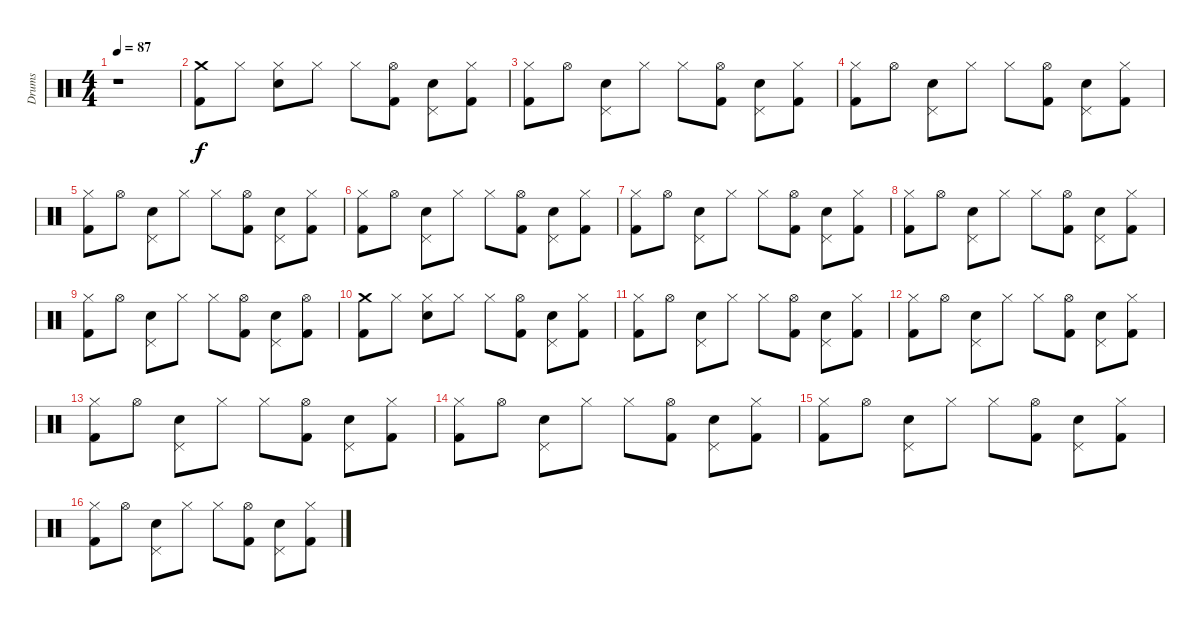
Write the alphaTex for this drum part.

\track ("Drums" "Drums") {instrument percussion}
\staff {score}
\articulation defaults
\ts (4 4)
\tempo 87
\clef neutral
\ks c
r.1{dy f} |
("Crash medium (hit)" "Kick (hit) 2").8 "Hi-Hat (closed)".8 ("Hi-Hat (closed)" "Electric Snare (hit)").8 "Hi-Hat (closed)".8 "Hi-Hat (closed)".8 ("Hi-Hat (open)" "Kick (hit) 2").8 ("Pedal Hi-Hat (hit)" "Electric Snare (hit)").8 ("Hi-Hat (closed)" "Kick (hit) 2").8 |
("Hi-Hat (closed)" "Kick (hit) 2").8 "Hi-Hat (open)".8 ("Pedal Hi-Hat (hit)" "Electric Snare (hit)").8 "Hi-Hat (closed)".8 "Hi-Hat (closed)".8 ("Hi-Hat (open)" "Kick (hit) 2").8 ("Pedal Hi-Hat (hit)" "Electric Snare (hit)").8 ("Hi-Hat (closed)" "Kick (hit) 2").8 |
("Hi-Hat (closed)" "Kick (hit) 2").8 "Hi-Hat (open)".8 ("Pedal Hi-Hat (hit)" "Electric Snare (hit)").8 "Hi-Hat (closed)".8 "Hi-Hat (closed)".8 ("Hi-Hat (open)" "Kick (hit) 2").8 ("Pedal Hi-Hat (hit)" "Electric Snare (hit)").8 ("Hi-Hat (closed)" "Kick (hit) 2").8 |
("Hi-Hat (closed)" "Kick (hit) 2").8 "Hi-Hat (open)".8 ("Pedal Hi-Hat (hit)" "Electric Snare (hit)").8 "Hi-Hat (closed)".8 "Hi-Hat (closed)".8 ("Hi-Hat (open)" "Kick (hit) 2").8 ("Pedal Hi-Hat (hit)" "Electric Snare (hit)").8 ("Hi-Hat (closed)" "Kick (hit) 2").8 |
("Hi-Hat (closed)" "Kick (hit) 2").8 "Hi-Hat (open)".8 ("Pedal Hi-Hat (hit)" "Electric Snare (hit)").8 "Hi-Hat (closed)".8 "Hi-Hat (closed)".8 ("Hi-Hat (open)" "Kick (hit) 2").8 ("Pedal Hi-Hat (hit)" "Electric Snare (hit)").8 ("Hi-Hat (closed)" "Kick (hit) 2").8 |
("Hi-Hat (closed)" "Kick (hit) 2").8 "Hi-Hat (open)".8 ("Pedal Hi-Hat (hit)" "Electric Snare (hit)").8 "Hi-Hat (closed)".8 "Hi-Hat (closed)".8 ("Hi-Hat (open)" "Kick (hit) 2").8 ("Pedal Hi-Hat (hit)" "Electric Snare (hit)").8 ("Hi-Hat (closed)" "Kick (hit) 2").8 |
("Hi-Hat (closed)" "Kick (hit) 2").8 "Hi-Hat (open)".8 ("Pedal Hi-Hat (hit)" "Electric Snare (hit)").8 "Hi-Hat (closed)".8 "Hi-Hat (closed)".8 ("Hi-Hat (open)" "Kick (hit) 2").8 ("Pedal Hi-Hat (hit)" "Electric Snare (hit)").8 ("Hi-Hat (closed)" "Kick (hit) 2").8 |
("Hi-Hat (closed)" "Kick (hit) 2").8 "Hi-Hat (open)".8 ("Pedal Hi-Hat (hit)" "Electric Snare (hit)").8 "Hi-Hat (closed)".8 "Hi-Hat (closed)".8 ("Hi-Hat (open)" "Kick (hit) 2").8 ("Pedal Hi-Hat (hit)" "Electric Snare (hit)").8 ("Hi-Hat (open)" "Kick (hit) 2").8 |
("Crash medium (hit)" "Kick (hit) 2").8 "Hi-Hat (closed)".8 ("Hi-Hat (closed)" "Electric Snare (hit)").8 "Hi-Hat (closed)".8 "Hi-Hat (closed)".8 ("Hi-Hat (open)" "Kick (hit) 2").8 ("Pedal Hi-Hat (hit)" "Electric Snare (hit)").8 ("Hi-Hat (closed)" "Kick (hit) 2").8 |
("Hi-Hat (closed)" "Kick (hit) 2").8 "Hi-Hat (open)".8 ("Pedal Hi-Hat (hit)" "Electric Snare (hit)").8 "Hi-Hat (closed)".8 "Hi-Hat (closed)".8 ("Hi-Hat (open)" "Kick (hit) 2").8 ("Pedal Hi-Hat (hit)" "Electric Snare (hit)").8 ("Hi-Hat (closed)" "Kick (hit) 2").8 |
("Hi-Hat (closed)" "Kick (hit) 2").8 "Hi-Hat (open)".8 ("Pedal Hi-Hat (hit)" "Electric Snare (hit)").8 "Hi-Hat (closed)".8 "Hi-Hat (closed)".8 ("Hi-Hat (open)" "Kick (hit) 2").8 ("Pedal Hi-Hat (hit)" "Electric Snare (hit)").8 ("Hi-Hat (closed)" "Kick (hit) 2").8 |
("Hi-Hat (closed)" "Kick (hit) 2").8 "Hi-Hat (open)".8 ("Pedal Hi-Hat (hit)" "Electric Snare (hit)").8 "Hi-Hat (closed)".8 "Hi-Hat (closed)".8 ("Hi-Hat (open)" "Kick (hit) 2").8 ("Pedal Hi-Hat (hit)" "Electric Snare (hit)").8 ("Hi-Hat (closed)" "Kick (hit) 2").8 |
("Hi-Hat (closed)" "Kick (hit) 2").8 "Hi-Hat (open)".8 ("Pedal Hi-Hat (hit)" "Electric Snare (hit)").8 "Hi-Hat (closed)".8 "Hi-Hat (closed)".8 ("Hi-Hat (open)" "Kick (hit) 2").8 ("Pedal Hi-Hat (hit)" "Electric Snare (hit)").8 ("Hi-Hat (closed)" "Kick (hit) 2").8 |
("Hi-Hat (closed)" "Kick (hit) 2").8 "Hi-Hat (open)".8 ("Pedal Hi-Hat (hit)" "Electric Snare (hit)").8 "Hi-Hat (closed)".8 "Hi-Hat (closed)".8 ("Hi-Hat (open)" "Kick (hit) 2").8 ("Pedal Hi-Hat (hit)" "Electric Snare (hit)").8 ("Hi-Hat (closed)" "Kick (hit) 2").8 |
("Hi-Hat (closed)" "Kick (hit) 2").8 "Hi-Hat (open)".8 ("Pedal Hi-Hat (hit)" "Electric Snare (hit)").8 "Hi-Hat (closed)".8 "Hi-Hat (closed)".8 ("Hi-Hat (open)" "Kick (hit) 2").8 ("Pedal Hi-Hat (hit)" "Electric Snare (hit)").8 ("Hi-Hat (closed)" "Kick (hit) 2").8
